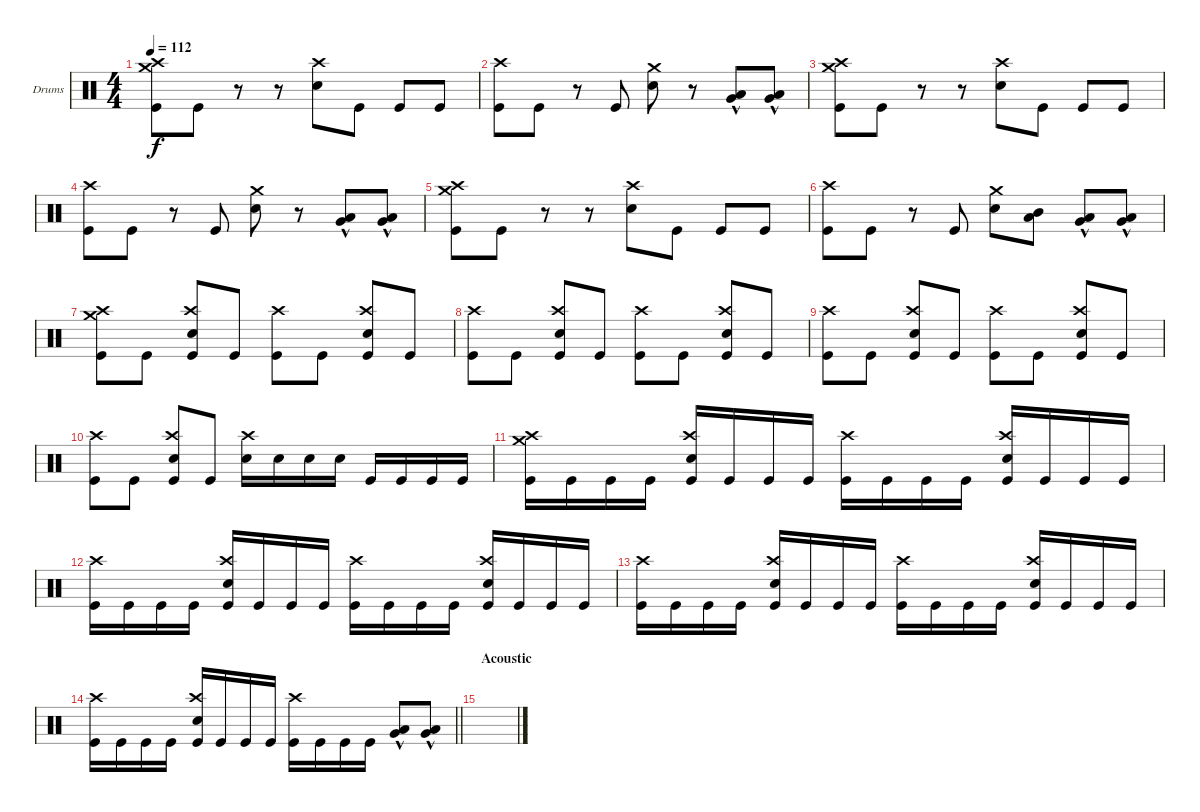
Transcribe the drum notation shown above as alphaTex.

\bracketExtendMode groupsimilarinstruments
\firstSystemTrackNameOrientation horizontal
\otherSystemsTrackNameOrientation horizontal
\track ("Drumkit" "Drums") {instrument percussion}
\staff {score}
\articulation defaults
\ts (4 4)
\tempo 112
\clef neutral
\scale
0.333333
\ks c
("Kick (hit)" "Crash medium (hit)" "Crash high (hit)").8{dy f} "Kick (hit)".8 r.8 r.8 ("Snare (hit) 2" "Crash high (hit)").8 "Kick (hit)".8 "Kick (hit)".8 "Kick (hit)".8 |
\scale
0.333333 ("Kick (hit)" "Crash high (hit)").8 "Kick (hit)".8 r.8 "Kick (hit)".8 ("Snare (hit) 2" "Crash medium (hit)").8 r.8 ("Very Low Tom (hit)"{hac} "Low Tom (hit)"{hac}).8 ("Low Tom (hit)"{hac} "Very Low Tom (hit)"{hac}).8 |
\scale
0.333333 ("Kick (hit)" "Crash medium (hit)" "Crash high (hit)").8 "Kick (hit)".8 r.8 r.8 ("Snare (hit) 2" "Crash high (hit)").8 "Kick (hit)".8 "Kick (hit)".8 "Kick (hit)".8 |
\scale
0.333333 ("Kick (hit)" "Crash high (hit)").8 "Kick (hit)".8 r.8 "Kick (hit)".8 ("Snare (hit) 2" "Crash medium (hit)").8 r.8 ("Very Low Tom (hit)"{hac} "Low Tom (hit)"{hac}).8 ("Low Tom (hit)"{hac} "Very Low Tom (hit)"{hac}).8 |
\scale
0.333333 ("Kick (hit)" "Crash medium (hit)" "Crash high (hit)").8 "Kick (hit)".8 r.8 r.8 ("Snare (hit) 2" "Crash high (hit)").8 "Kick (hit)".8 "Kick (hit)".8 "Kick (hit)".8 |
\scale
0.333333 ("Kick (hit)" "Crash high (hit)").8 "Kick (hit)".8 r.8 "Kick (hit)".8 ("Snare (hit) 2" "Crash medium (hit)").8 ("Mid Tom (hit)" "Low Tom (hit)").8 ("Very Low Tom (hit)"{hac} "Low Tom (hit)"{hac}).8 ("Low Tom (hit)"{hac} "Very Low Tom (hit)"{hac}).8 |
\scale
0.333333 ("Kick (hit)" "Crash medium (hit)" "Crash high (hit)").8 "Kick (hit)".8 ("Kick (hit)" "Crash high (hit)" "Snare (hit) 2").8 "Kick (hit)".8 ("Kick (hit)" "Crash high (hit)").8 "Kick (hit)".8 ("Kick (hit)" "Crash high (hit)" "Snare (hit) 2").8 "Kick (hit)".8 |
\scale
0.333333 ("Kick (hit)" "Crash high (hit)").8 "Kick (hit)".8 ("Kick (hit)" "Crash high (hit)" "Snare (hit) 2").8 "Kick (hit)".8 ("Kick (hit)" "Crash high (hit)").8 "Kick (hit)".8 ("Kick (hit)" "Crash high (hit)" "Snare (hit) 2").8 "Kick (hit)".8 |
\scale
0.333333 ("Kick (hit)" "Crash high (hit)").8 "Kick (hit)".8 ("Kick (hit)" "Crash high (hit)" "Snare (hit) 2").8 "Kick (hit)".8 ("Kick (hit)" "Crash high (hit)").8 "Kick (hit)".8 ("Kick (hit)" "Crash high (hit)" "Snare (hit) 2").8 "Kick (hit)".8 |
\scale
0.333333 ("Kick (hit)" "Crash high (hit)").8 "Kick (hit)".8 ("Kick (hit)" "Crash high (hit)" "Snare (hit) 2").8 "Kick (hit)".8 ("Crash high (hit)" "Snare (hit) 2").16 "Snare (hit) 2".16 "Snare (hit) 2".16 "Snare (hit) 2".16 "Kick (hit)".16 "Kick (hit)".16 "Kick (hit)".16 "Kick (hit)".16 |
\scale
0.333333 ("Kick (hit)" "Crash medium (hit)" "Crash high (hit)").16 "Kick (hit)".16 "Kick (hit)".16 "Kick (hit)".16 ("Kick (hit)" "Crash high (hit)" "Snare (hit) 2").16 "Kick (hit)".16 "Kick (hit)".16 "Kick (hit)".16 ("Kick (hit)" "Crash high (hit)").16 "Kick (hit)".16 "Kick (hit)".16 "Kick (hit)".16 ("Kick (hit)" "Crash high (hit)" "Snare (hit) 2").16 "Kick (hit)".16 "Kick (hit)".16 "Kick (hit)".16 |
\scale
0.333333 ("Kick (hit)" "Crash high (hit)").16 "Kick (hit)".16 "Kick (hit)".16 "Kick (hit)".16 ("Kick (hit)" "Crash high (hit)" "Snare (hit) 2").16 "Kick (hit)".16 "Kick (hit)".16 "Kick (hit)".16 ("Kick (hit)" "Crash high (hit)").16 "Kick (hit)".16 "Kick (hit)".16 "Kick (hit)".16 ("Kick (hit)" "Crash high (hit)" "Snare (hit) 2").16 "Kick (hit)".16 "Kick (hit)".16 "Kick (hit)".16 |
\scale
0.333333 ("Kick (hit)" "Crash high (hit)").16 "Kick (hit)".16 "Kick (hit)".16 "Kick (hit)".16 ("Kick (hit)" "Crash high (hit)" "Snare (hit) 2").16 "Kick (hit)".16 "Kick (hit)".16 "Kick (hit)".16 ("Kick (hit)" "Crash high (hit)").16 "Kick (hit)".16 "Kick (hit)".16 "Kick (hit)".16 ("Kick (hit)" "Crash high (hit)" "Snare (hit) 2").16 "Kick (hit)".16 "Kick (hit)".16 "Kick (hit)".16 |
\scale
0.333333
\barLineRight lightlight
("Kick (hit)" "Crash high (hit)").16 "Kick (hit)".16 "Kick (hit)".16 "Kick (hit)".16 ("Kick (hit)" "Crash high (hit)" "Snare (hit) 2").16 "Kick (hit)".16 "Kick (hit)".16 "Kick (hit)".16 ("Kick (hit)" "Crash high (hit)").16 "Kick (hit)".16 "Kick (hit)".16 "Kick (hit)".16 ("Very Low Tom (hit)"{hac} "Low Tom (hit)"{hac}).8 ("Low Tom (hit)"{hac} "Very Low Tom (hit)"{hac}).8 |
\section ("" "Acoustic")
\scale
0.333333 |
\scale
0.333333
